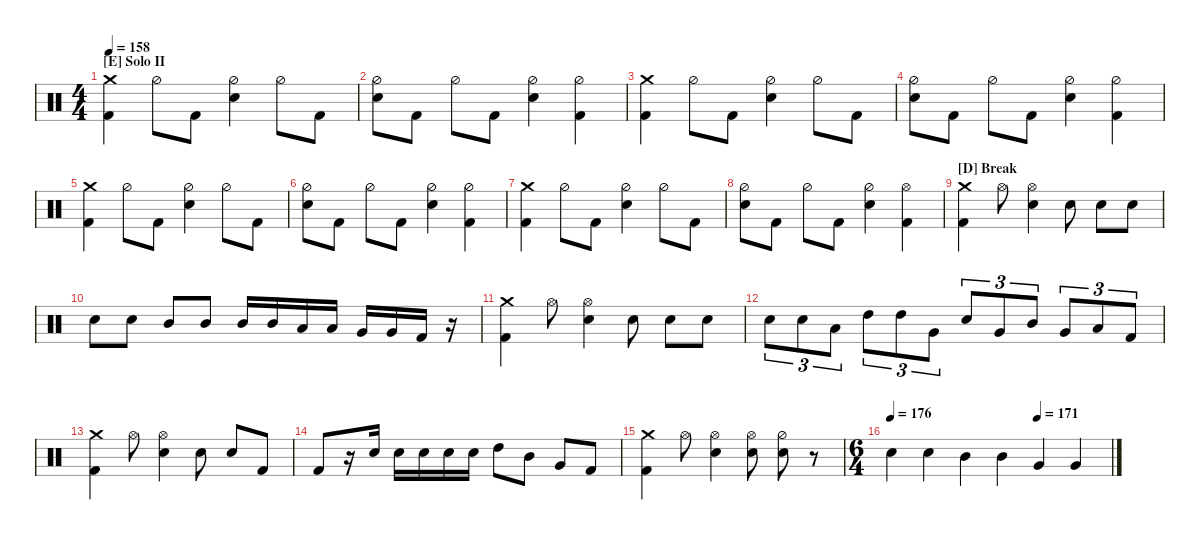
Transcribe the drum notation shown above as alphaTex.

\defaultSystemsLayout 4
\hideDynamics
\bracketExtendMode nobrackets
\singleTrackTrackNamePolicy hidden
\multiTrackTrackNamePolicy hidden
\firstSystemTrackNameMode fullname
\firstSystemTrackNameOrientation horizontal
\otherSystemsTrackNameOrientation horizontal
\track ("Drum" "Drums") {instrument percussion}
\staff {score}
\articulation defaults
\ts (4 4)
\section ("E" "Solo II")
\scale
0.25
\tempo 158
\accidentals auto
\clef neutral
\ottava regular
\simile none
\scale
0.25
\ks c
("Kick (hit) 2" "Crash medium (hit)").4{dy f beam Down} "Hi-Hat (half)".8{beam Down} "Kick (hit) 2".8{beam Down} ("Snare (hit) 2" "Hi-Hat (half)").4{beam Down} "Hi-Hat (half)".8{beam Down} "Kick (hit) 2".8{beam Down} |
\scale
0.25
\scale
0.25 ("Snare (hit) 2" "Hi-Hat (half)").8{beam Down} "Kick (hit) 2".8{beam Down} "Hi-Hat (half)".8{beam Down} "Kick (hit) 2".8{beam Down} ("Snare (hit) 2" "Hi-Hat (half)").4{beam Down} ("Kick (hit) 2" "Hi-Hat (half)").4{beam Down} |
\scale
0.25
\scale
0.25 ("Kick (hit) 2" "Crash medium (hit)").4{beam Down} "Hi-Hat (half)".8{beam Down} "Kick (hit) 2".8{beam Down} ("Snare (hit) 2" "Hi-Hat (half)").4{beam Down} "Hi-Hat (half)".8{beam Down} "Kick (hit) 2".8{beam Down} |
\scale
0.25
\scale
0.25 ("Snare (hit) 2" "Hi-Hat (half)").8{beam Down} "Kick (hit) 2".8{beam Down} "Hi-Hat (half)".8{beam Down} "Kick (hit) 2".8{beam Down} ("Snare (hit) 2" "Hi-Hat (half)").4{beam Down} ("Kick (hit) 2" "Hi-Hat (half)").4{beam Down} |
\scale
0.21875
\scale
0.25 ("Kick (hit) 2" "Crash medium (hit)").4{beam Down} "Hi-Hat (half)".8{beam Down} "Kick (hit) 2".8{beam Down} ("Snare (hit) 2" "Hi-Hat (half)").4{beam Down} "Hi-Hat (half)".8{beam Down} "Kick (hit) 2".8{beam Down} |
\scale
0.21875
\scale
0.25 ("Snare (hit) 2" "Hi-Hat (half)").8{beam Down} "Kick (hit) 2".8{beam Down} "Hi-Hat (half)".8{beam Down} "Kick (hit) 2".8{beam Down} ("Snare (hit) 2" "Hi-Hat (half)").4{beam Down} ("Kick (hit) 2" "Hi-Hat (half)").4{beam Down} |
\scale
0.34375
\scale
0.25 ("Kick (hit) 2" "Crash medium (hit)").4{beam Down} "Hi-Hat (half)".8{beam Down} "Kick (hit) 2".8{beam Down} ("Snare (hit) 2" "Hi-Hat (half)").4{beam Down} "Hi-Hat (half)".8{beam Down} "Kick (hit) 2".8{beam Down} |
\scale
0.21875
\scale
0.25 ("Snare (hit) 2" "Hi-Hat (half)").8{beam Down} "Kick (hit) 2".8{beam Down} "Hi-Hat (half)".8{beam Down} "Kick (hit) 2".8{beam Down} ("Snare (hit) 2" "Hi-Hat (half)").4{beam Down} ("Kick (hit) 2" "Hi-Hat (open)").4{beam Down} |
\section ("D" "Break")
\scale
0.296651
\scale
0.194444 ("Kick (hit) 2" "Crash medium (hit)").4{beam Down} "Hi-Hat (open)".8{beam Down} ("Snare (hit) 2" "Hi-Hat (open)").4{beam Down} "Snare (hit) 2".8{beam Down} "Snare (hit) 2".8{beam Down} "Snare (hit) 2".8{beam Down} |
\scale
0.150718
\scale
0.294444 "Snare (hit) 2".8{beam Down} "Snare (hit) 2".8{beam Down} "Mid Tom (hit)".8{beam Up} "Mid Tom (hit)".8{beam Up} "Mid Tom (hit)".16{beam Up} "Mid Tom (hit)".16{beam Up} "Low Tom (hit)".16{beam Up} "Low Tom (hit)".16{beam Up} "Very Low Tom (hit)".16{beam Up} "Very Low Tom (hit)".16{beam Up} "Kick (hit) 2".16{beam Up} r.16{beam Up} |
\scale
0.401914
\scale
0.194444 ("Kick (hit) 2" "Crash medium (hit)").4{beam Down} "Hi-Hat (open)".8{beam Down} ("Snare (hit) 2" "Hi-Hat (open)").4{beam Down} "Snare (hit) 2".8{beam Down} "Snare (hit) 2".8{beam Down} "Snare (hit) 2".8{beam Down} |
\scale
0.150718
\scale
0.316667 "Snare (hit) 2".8{tu (3 2) beam Down} "Snare (hit) 2".8{tu (3 2) beam Down} "Low Tom (hit)".8{tu (3 2) beam Down} "High Tom (hit)".8{tu (3 2) beam Down} "High Tom (hit)".8{tu (3 2) beam Down} "Very Low Tom (hit)".8{tu (3 2) beam Down} "Snare (hit) 2".8{tu (3 2) beam Up} "Very Low Tom (hit)".8{tu (3 2) beam Up} "Mid Tom (hit)".8{tu (3 2) beam Up} "Very Low Tom (hit)".8{tu (3 2) beam Up} "Low Tom (hit)".8{tu (3 2) beam Up} "Kick (hit) 2".8{tu (3 2) beam Up} |
\scale
0.280543
\scale
0.207407 ("Kick (hit) 2" "Crash medium (hit)").4{beam Down} "Hi-Hat (open)".8{beam Down} ("Snare (hit) 2" "Hi-Hat (open)").4{beam Down} "Snare (hit) 2".8{beam Down} "Snare (hit) 2".8{beam Up} "Kick (hit) 2".8{beam Up} |
\scale
0.142534
\scale
0.300741 "Kick (hit) 2".8{beam Up} r.16{beam Up} "Snare (hit) 2".16{beam Up} "Snare (hit) 2".16{beam Down} "Snare (hit) 2".16{beam Down} "Snare (hit) 2".16{beam Down} "Snare (hit) 2".16{beam Down} "High Tom (hit)".8{beam Down} "Mid Tom (hit)".8{beam Down} "Very Low Tom (hit)".8{beam Up} "Kick (hit) 2".8{beam Up} |
\scale
0.38009
\scale
0.207407 ("Kick (hit) 2" "Crash medium (hit)").4{beam Down} "Hi-Hat (open)".8{beam Down} ("Snare (hit) 2" "Hi-Hat (open)").4{beam Down} ("Snare (hit) 2" "Hi-Hat (open)").8{beam Down} ("Snare (hit) 2" "Hi-Hat (half)").8{beam Down} r.8{beam Down} |
\ts (6 4)
\scale
0.196833
\tempo 176
\tempo (171 0.666667)
\scale
0.284444 "Snare (hit) 2".4{beam Down} "Snare (hit) 2".4{beam Down} "Mid Tom (hit)".4{beam Down} "Mid Tom (hit)".4{beam Down} "Very Low Tom (hit)".4{beam Up} "Very Low Tom (hit)".4{beam Up}
